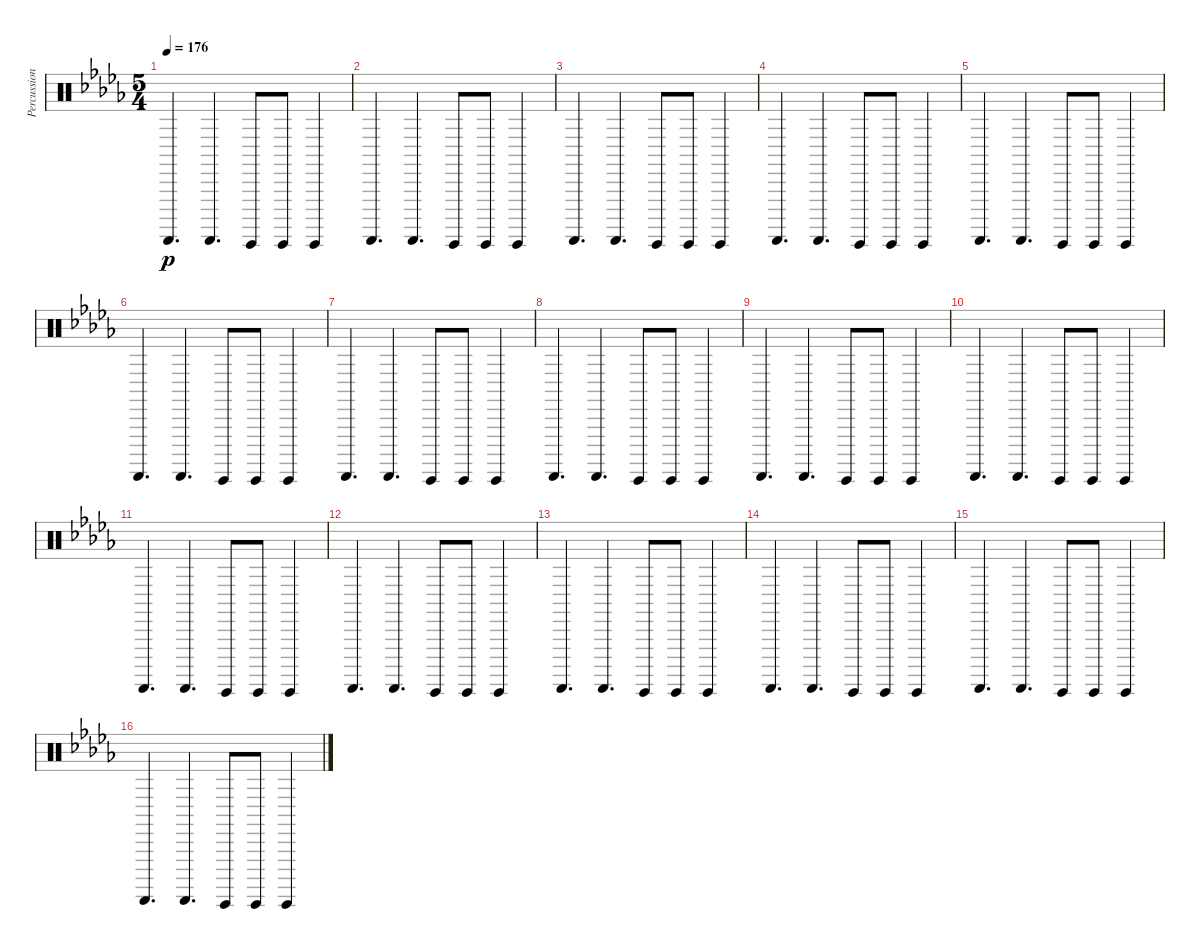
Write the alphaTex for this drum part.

\track ("Percussion" "Percussion") {instrument percussion}
\staff {score}
\articulation defaults
\ts (5 4)
\tempo 176
\clef neutral
\ks db "Guiro (scrap-return)".4{d dy p} "Guiro (scrap-return)".4{d} "Guiro (hit)".8 "Guiro (hit)".8 "Guiro (hit)".4
|
"Guiro (scrap-return)".4{d} "Guiro (scrap-return)".4{d} "Guiro (hit)".8 "Guiro (hit)".8 "Guiro (hit)".4 |
"Guiro (scrap-return)".4{d} "Guiro (scrap-return)".4{d} "Guiro (hit)".8 "Guiro (hit)".8 "Guiro (hit)".4 |
"Guiro (scrap-return)".4{d} "Guiro (scrap-return)".4{d} "Guiro (hit)".8 "Guiro (hit)".8 "Guiro (hit)".4 |
"Guiro (scrap-return)".4{d} "Guiro (scrap-return)".4{d} "Guiro (hit)".8 "Guiro (hit)".8 "Guiro (hit)".4 |
"Guiro (scrap-return)".4{d} "Guiro (scrap-return)".4{d} "Guiro (hit)".8 "Guiro (hit)".8 "Guiro (hit)".4 |
"Guiro (scrap-return)".4{d} "Guiro (scrap-return)".4{d} "Guiro (hit)".8 "Guiro (hit)".8 "Guiro (hit)".4 |
"Guiro (scrap-return)".4{d} "Guiro (scrap-return)".4{d} "Guiro (hit)".8 "Guiro (hit)".8 "Guiro (hit)".4 |
"Guiro (scrap-return)".4{d} "Guiro (scrap-return)".4{d} "Guiro (hit)".8 "Guiro (hit)".8 "Guiro (hit)".4 |
"Guiro (scrap-return)".4{d} "Guiro (scrap-return)".4{d} "Guiro (hit)".8 "Guiro (hit)".8 "Guiro (hit)".4 |
"Guiro (scrap-return)".4{d} "Guiro (scrap-return)".4{d} "Guiro (hit)".8 "Guiro (hit)".8 "Guiro (hit)".4 |
"Guiro (scrap-return)".4{d} "Guiro (scrap-return)".4{d} "Guiro (hit)".8 "Guiro (hit)".8 "Guiro (hit)".4 |
"Guiro (scrap-return)".4{d} "Guiro (scrap-return)".4{d} "Guiro (hit)".8 "Guiro (hit)".8 "Guiro (hit)".4 |
"Guiro (scrap-return)".4{d} "Guiro (scrap-return)".4{d} "Guiro (hit)".8 "Guiro (hit)".8 "Guiro (hit)".4 |
"Guiro (scrap-return)".4{d} "Guiro (scrap-return)".4{d} "Guiro (hit)".8 "Guiro (hit)".8 "Guiro (hit)".4 |
"Guiro (scrap-return)".4{d} "Guiro (scrap-return)".4{d} "Guiro (hit)".8 "Guiro (hit)".8 "Guiro (hit)".4
